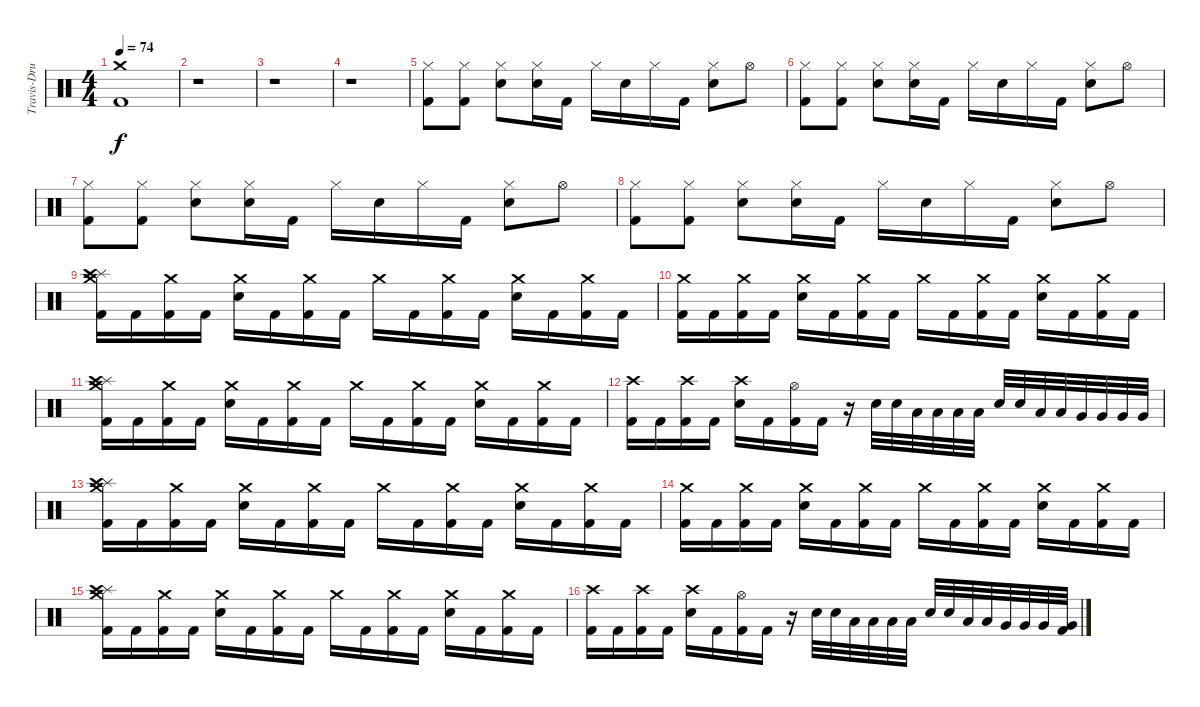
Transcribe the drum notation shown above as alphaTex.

\track ("Travis-Drums" "Travis-Dru") {instrument percussion}
\staff {score}
\articulation defaults
\ts (4 4)
\tempo 74
\clef neutral
\ks c
("Crash medium (hit)" "Kick (hit) 2").1{dy f} |
r.1 |
r.1 |
r.1 |
("Hi-Hat (closed)" "Kick (hit) 2").8{balance 0} ("Hi-Hat (closed)" "Kick (hit) 2").8 ("Hi-Hat (closed)" "Electric Snare (hit)").8 ("Hi-Hat (closed)" "Electric Snare (hit)").16 "Kick (hit) 2".16 "Hi-Hat (closed)".16 "Electric Snare (hit)".16 "Hi-Hat (closed)".16 "Kick (hit) 2".16 ("Hi-Hat (closed)" "Electric Snare (hit)").8 "Hi-Hat (open)".8 |
("Hi-Hat (closed)" "Kick (hit) 2").8 ("Hi-Hat (closed)" "Kick (hit) 2").8 ("Hi-Hat (closed)" "Electric Snare (hit)").8 ("Hi-Hat (closed)" "Electric Snare (hit)").16 "Kick (hit) 2".16 "Hi-Hat (closed)".16 "Electric Snare (hit)".16 "Hi-Hat (closed)".16 "Kick (hit) 2".16 ("Hi-Hat (closed)" "Electric Snare (hit)").8 "Hi-Hat (open)".8 |
("Hi-Hat (closed)" "Kick (hit) 2").8 ("Hi-Hat (closed)" "Kick (hit) 2").8 ("Hi-Hat (closed)" "Electric Snare (hit)").8 ("Hi-Hat (closed)" "Electric Snare (hit)").16 "Kick (hit) 2".16 "Hi-Hat (closed)".16 "Electric Snare (hit)".16 "Hi-Hat (closed)".16 "Kick (hit) 2".16 ("Hi-Hat (closed)" "Electric Snare (hit)").8 "Hi-Hat (open)".8 |
("Hi-Hat (closed)" "Kick (hit) 2").8 ("Hi-Hat (closed)" "Kick (hit) 2").8 ("Hi-Hat (closed)" "Electric Snare (hit)").8 ("Hi-Hat (closed)" "Electric Snare (hit)").16 "Kick (hit) 2".16 "Hi-Hat (closed)".16 "Electric Snare (hit)".16 "Hi-Hat (closed)".16 "Kick (hit) 2".16 ("Hi-Hat (closed)" "Electric Snare (hit)").8 "Hi-Hat (open)".8 |
("Splash (hit)" "Crash high (hit)" "Crash medium (hit)" "Kick (hit) 2").16 "Kick (hit) 2".16 ("Crash medium (hit)" "Kick (hit) 2").16 "Kick (hit) 2".16 ("Crash medium (hit)" "Snare (hit) 2").16 "Kick (hit) 2".16 ("Crash medium (hit)" "Kick (hit) 2").16 "Kick (hit) 2".16 "Crash medium (hit)".16 "Kick (hit) 2".16 ("Crash medium (hit)" "Kick (hit) 2").16 "Kick (hit) 2".16 ("Crash medium (hit)" "Snare (hit) 2").16 "Kick (hit) 2".16 ("Crash medium (hit)" "Kick (hit) 2").16 "Kick (hit) 2".16 |
("Crash medium (hit)" "Kick (hit) 2").16 "Kick (hit) 2".16 ("Crash medium (hit)" "Kick (hit) 2").16 "Kick (hit) 2".16 ("Crash medium (hit)" "Snare (hit) 2").16 "Kick (hit) 2".16 ("Crash medium (hit)" "Kick (hit) 2").16 "Kick (hit) 2".16 "Crash medium (hit)".16 "Kick (hit) 2".16 ("Crash medium (hit)" "Kick (hit) 2").16 "Kick (hit) 2".16 ("Crash medium (hit)" "Snare (hit) 2").16 "Kick (hit) 2".16 ("Crash medium (hit)" "Kick (hit) 2").16 "Kick (hit) 2".16 |
("Splash (hit)" "Crash high (hit)" "Crash medium (hit)" "Kick (hit) 2").16 "Kick (hit) 2".16 ("Crash medium (hit)" "Kick (hit) 2").16 "Kick (hit) 2".16 ("Crash medium (hit)" "Snare (hit) 2").16 "Kick (hit) 2".16 ("Crash medium (hit)" "Kick (hit) 2").16 "Kick (hit) 2".16 "Crash medium (hit)".16 "Kick (hit) 2".16 ("Crash medium (hit)" "Kick (hit) 2").16 "Kick (hit) 2".16 ("Crash medium (hit)" "Snare (hit) 2").16 "Kick (hit) 2".16 ("Crash medium (hit)" "Kick (hit) 2").16 "Kick (hit) 2".16 |
("Crash high (hit)" "Kick (hit) 2").16 "Kick (hit) 2".16 ("Crash high (hit)" "Kick (hit) 2").16 "Kick (hit) 2".16 ("Crash high (hit)" "Snare (hit) 2").16 "Kick (hit) 2".16 ("Hi-Hat (open)" "Kick (hit) 2").16 "Kick (hit) 2".16 r.16 "Snare (hit) 2".32 "Snare (hit) 2".32 "Low Tom (hit)".32 "Low Tom (hit)".32 "Low Tom (hit)".32 "Low Tom (hit)".32 "Snare (hit) 2".32 "Snare (hit) 2".32 "Low Tom (hit)".32 "Low Tom (hit)".32 "Very Low Tom (hit)".32 "Very Low Tom (hit)".32 "Very Low Tom (hit)".32 "Very Low Tom (hit)".32 |
("Splash (hit)" "Crash high (hit)" "Crash medium (hit)" "Kick (hit) 2").16 "Kick (hit) 2".16 ("Crash medium (hit)" "Kick (hit) 2").16 "Kick (hit) 2".16 ("Crash medium (hit)" "Snare (hit) 2").16 "Kick (hit) 2".16 ("Crash medium (hit)" "Kick (hit) 2").16 "Kick (hit) 2".16 "Crash medium (hit)".16 "Kick (hit) 2".16 ("Crash medium (hit)" "Kick (hit) 2").16 "Kick (hit) 2".16 ("Crash medium (hit)" "Snare (hit) 2").16 "Kick (hit) 2".16 ("Crash medium (hit)" "Kick (hit) 2").16 "Kick (hit) 2".16 |
("Crash medium (hit)" "Kick (hit) 2").16 "Kick (hit) 2".16 ("Crash medium (hit)" "Kick (hit) 2").16 "Kick (hit) 2".16 ("Crash medium (hit)" "Snare (hit) 2").16 "Kick (hit) 2".16 ("Crash medium (hit)" "Kick (hit) 2").16 "Kick (hit) 2".16 "Crash medium (hit)".16 "Kick (hit) 2".16 ("Crash medium (hit)" "Kick (hit) 2").16 "Kick (hit) 2".16 ("Crash medium (hit)" "Snare (hit) 2").16 "Kick (hit) 2".16 ("Crash medium (hit)" "Kick (hit) 2").16 "Kick (hit) 2".16 |
("Splash (hit)" "Crash high (hit)" "Crash medium (hit)" "Kick (hit) 2").16 "Kick (hit) 2".16 ("Crash medium (hit)" "Kick (hit) 2").16 "Kick (hit) 2".16 ("Crash medium (hit)" "Snare (hit) 2").16 "Kick (hit) 2".16 ("Crash medium (hit)" "Kick (hit) 2").16 "Kick (hit) 2".16 "Crash medium (hit)".16 "Kick (hit) 2".16 ("Crash medium (hit)" "Kick (hit) 2").16 "Kick (hit) 2".16 ("Crash medium (hit)" "Snare (hit) 2").16 "Kick (hit) 2".16 ("Crash medium (hit)" "Kick (hit) 2").16 "Kick (hit) 2".16 |
("Crash high (hit)" "Kick (hit) 2").16 "Kick (hit) 2".16 ("Crash high (hit)" "Kick (hit) 2").16 "Kick (hit) 2".16 ("Crash high (hit)" "Snare (hit) 2").16 "Kick (hit) 2".16 ("Hi-Hat (open)" "Kick (hit) 2").16 "Kick (hit) 2".16 r.16 "Snare (hit) 2".32 "Snare (hit) 2".32 "Low Tom (hit)".32 "Low Tom (hit)".32 "Low Tom (hit)".32 "Low Tom (hit)".32 "Snare (hit) 2".32 "Snare (hit) 2".32 "Low Tom (hit)".32 "Low Tom (hit)".32 "Very Low Tom (hit)".32 "Very Low Tom (hit)".32 "Very Low Tom (hit)".32 ("Very Low Tom (hit)" "Kick (hit) 2").32
